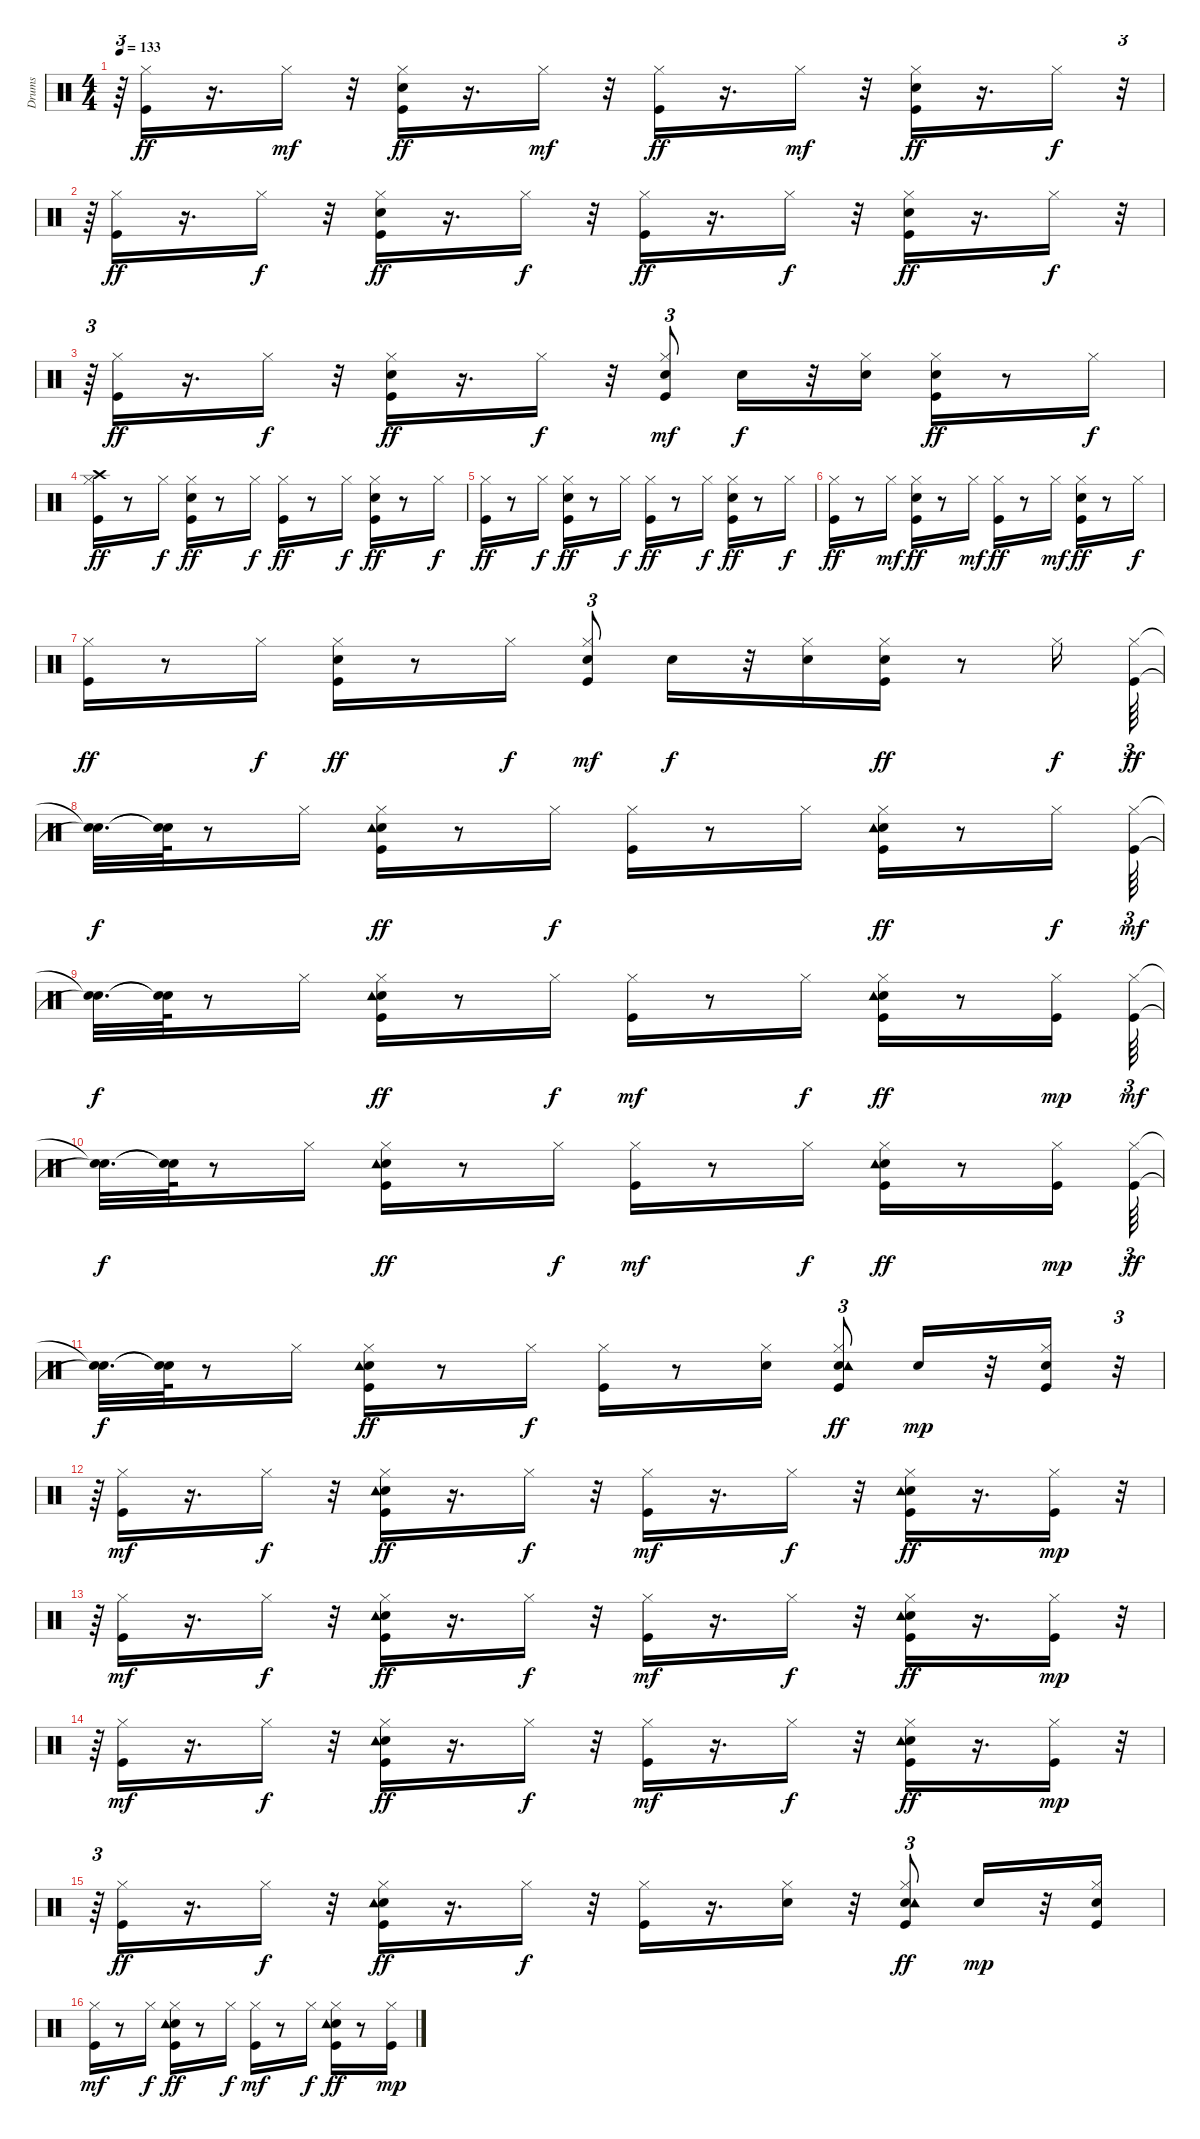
\track ("Drums   " "Drums   ") {instrument percussion}
\staff {score}
\articulation defaults
\ts (4 4)
\tempo 133
\clef neutral
\ks c
r.64{tu (3 2) dy f} ("Kick (hit)" "Hi-Hat (closed)").16{dy ff} r.16{d} "Hi-Hat (closed)".16{dy mf} r.32 ("Kick (hit)" "Snare (hit) 2" "Hi-Hat (closed)").16{dy ff} r.16{d} "Hi-Hat (closed)".16{dy mf} r.32 ("Kick (hit)" "Hi-Hat (closed)").16{dy ff} r.16{d} "Hi-Hat (closed)".16{dy mf} r.32 ("Kick (hit)" "Snare (hit) 2" "Hi-Hat (closed)").16{dy ff} r.16{d} "Hi-Hat (closed)".16{dy f} r.32{tu (3 2)} |
r.64{tu (3 2)} ("Kick (hit)" "Hi-Hat (closed)").16{dy ff} r.16{d} "Hi-Hat (closed)".16{dy f} r.32 ("Kick (hit)" "Snare (hit) 2" "Hi-Hat (closed)").16{dy ff} r.16{d} "Hi-Hat (closed)".16{dy f} r.32 ("Kick (hit)" "Hi-Hat (closed)").16{dy ff} r.16{d} "Hi-Hat (closed)".16{dy f} r.32 ("Kick (hit)" "Snare (hit) 2" "Hi-Hat (closed)").16{dy ff} r.16{d} "Hi-Hat (closed)".16{dy f} r.32{tu (3 2)} |
r.64{tu (3 2)} ("Kick (hit)" "Hi-Hat (closed)").16{dy ff} r.16{d} "Hi-Hat (closed)".16{dy f} r.32 ("Kick (hit)" "Snare (hit) 2" "Hi-Hat (closed)").16{dy ff} r.16{d} "Hi-Hat (closed)".16{dy f} r.32 ("Kick (hit)" "Snare (hit) 2" "Hi-Hat (closed)").8{tu (3 2) dy mf} "Snare (hit) 2".16{dy f} r.32 ("Snare (hit) 2" "Hi-Hat (closed)").16 ("Kick (hit)" "Snare (hit) 2" "Hi-Hat (closed)").16{dy ff} r.8 "Hi-Hat (closed)".16{dy f} |
("Kick (hit)" "Hi-Hat (closed)" "Crash high (hit)").16{dy ff} r.8 "Hi-Hat (closed)".16{dy f} ("Kick (hit)" "Snare (hit) 2" "Hi-Hat (closed)").16{dy ff} r.8 "Hi-Hat (closed)".16{dy f} ("Kick (hit)" "Hi-Hat (closed)").16{dy ff} r.8 "Hi-Hat (closed)".16{dy f} ("Kick (hit)" "Snare (hit) 2" "Hi-Hat (closed)").16{dy ff} r.8 "Hi-Hat (closed)".16{dy f} |
("Kick (hit)" "Hi-Hat (closed)").16{dy ff} r.8 "Hi-Hat (closed)".16{dy f} ("Kick (hit)" "Snare (hit) 2" "Hi-Hat (closed)").16{dy ff} r.8 "Hi-Hat (closed)".16{dy f} ("Kick (hit)" "Hi-Hat (closed)").16{dy ff} r.8 "Hi-Hat (closed)".16{dy f} ("Kick (hit)" "Snare (hit) 2" "Hi-Hat (closed)").16{dy ff} r.8 "Hi-Hat (closed)".16{dy f} |
("Kick (hit)" "Hi-Hat (closed)").16{dy ff} r.8 "Hi-Hat (closed)".16{dy mf} ("Kick (hit)" "Snare (hit) 2" "Hi-Hat (closed)").16{dy ff} r.8 "Hi-Hat (closed)".16{dy mf} ("Kick (hit)" "Hi-Hat (closed)").16{dy ff} r.8 "Hi-Hat (closed)".16{dy mf} ("Kick (hit)" "Snare (hit) 2" "Hi-Hat (closed)").16{dy ff} r.8 "Hi-Hat (closed)".16{dy f} |
("Kick (hit)" "Hi-Hat (closed)").16{dy ff} r.8 "Hi-Hat (closed)".16{dy f} ("Kick (hit)" "Snare (hit) 2" "Hi-Hat (closed)").16{dy ff} r.8 "Hi-Hat (closed)".16{dy f} ("Kick (hit)" "Snare (hit) 2" "Hi-Hat (closed)").8{tu (3 2) dy mf} "Snare (hit) 2".16{dy f} r.32 ("Snare (hit) 2" "Hi-Hat (closed)").16 ("Kick (hit)" "Snare (hit) 2" "Hi-Hat (closed)").16{dy ff} r.8 "Hi-Hat (closed)".16{dy f} ("Kick (hit)" "Hi-Hat (closed)").64{tu (3 2) dy ff} |
("Snare (hit)"{t} "Snare (hit)"{t}).32{d dy f} ("Snare (hit)"{t} "Snare (hit)"{t}).64 r.8 "Hi-Hat (closed)".16 ("Kick (hit)" "Snare (hit) 2" "Hi-Hat (closed)" "Tambourine (hit)").16{dy ff} r.8 "Hi-Hat (closed)".16{dy f} ("Kick (hit)" "Hi-Hat (closed)").16 r.8 "Hi-Hat (closed)".16 ("Kick (hit)" "Snare (hit) 2" "Hi-Hat (closed)" "Tambourine (hit)").16{dy ff} r.8 "Hi-Hat (closed)".16{dy f} ("Kick (hit)" "Hi-Hat (closed)").64{tu (3 2) dy mf} |
("Snare (hit)"{t} "Snare (hit)"{t}).32{d dy f} ("Snare (hit)"{t} "Snare (hit)"{t}).64 r.8 "Hi-Hat (closed)".16 ("Kick (hit)" "Snare (hit) 2" "Hi-Hat (closed)" "Tambourine (hit)").16{dy ff} r.8 "Hi-Hat (closed)".16{dy f} ("Kick (hit)" "Hi-Hat (closed)").16{dy mf} r.8 "Hi-Hat (closed)".16{dy f} ("Kick (hit)" "Snare (hit) 2" "Hi-Hat (closed)" "Tambourine (hit)").16{dy ff} r.8 ("Kick (hit)" "Hi-Hat (closed)").16{dy mp} ("Kick (hit)" "Hi-Hat (closed)").64{tu (3 2) dy mf} |
("Snare (hit)"{t} "Snare (hit)"{t}).32{d dy f} ("Snare (hit)"{t} "Snare (hit)"{t}).64 r.8 "Hi-Hat (closed)".16 ("Kick (hit)" "Snare (hit) 2" "Hi-Hat (closed)" "Tambourine (hit)").16{dy ff} r.8 "Hi-Hat (closed)".16{dy f} ("Kick (hit)" "Hi-Hat (closed)").16{dy mf} r.8 "Hi-Hat (closed)".16{dy f} ("Kick (hit)" "Snare (hit) 2" "Hi-Hat (closed)" "Tambourine (hit)").16{dy ff} r.8 ("Kick (hit)" "Hi-Hat (closed)").16{dy mp} ("Kick (hit)" "Hi-Hat (closed)").64{tu (3 2) dy ff} |
("Snare (hit)"{t} "Snare (hit)"{t}).32{d dy f} ("Snare (hit)"{t} "Snare (hit)"{t}).64 r.8 "Hi-Hat (closed)".16 ("Kick (hit)" "Snare (hit) 2" "Hi-Hat (closed)" "Tambourine (hit)").16{dy ff} r.8 "Hi-Hat (closed)".16{dy f} ("Kick (hit)" "Hi-Hat (closed)").16 r.8 ("Snare (hit) 2" "Hi-Hat (closed)").16 ("Kick (hit)" "Snare (hit) 2" "Hi-Hat (closed)" "Tambourine (hit)").8{tu (3 2) dy ff} "Snare (hit) 2".16{dy mp} r.32 ("Kick (hit)" "Snare (hit) 2" "Hi-Hat (closed)").16 r.32{tu (3 2)} |
r.64{tu (3 2)} ("Kick (hit)" "Hi-Hat (closed)").16{dy mf} r.16{d} "Hi-Hat (closed)".16{dy f} r.32 ("Kick (hit)" "Snare (hit) 2" "Hi-Hat (closed)" "Tambourine (hit)").16{dy ff} r.16{d} "Hi-Hat (closed)".16{dy f} r.32 ("Kick (hit)" "Hi-Hat (closed)").16{dy mf} r.16{d} "Hi-Hat (closed)".16{dy f} r.32 ("Kick (hit)" "Snare (hit) 2" "Hi-Hat (closed)" "Tambourine (hit)").16{dy ff} r.16{d} ("Kick (hit)" "Hi-Hat (closed)").16{dy mp} r.32{tu (3 2)} |
r.64{tu (3 2)} ("Kick (hit)" "Hi-Hat (closed)").16{dy mf} r.16{d} "Hi-Hat (closed)".16{dy f} r.32 ("Kick (hit)" "Snare (hit) 2" "Hi-Hat (closed)" "Tambourine (hit)").16{dy ff} r.16{d} "Hi-Hat (closed)".16{dy f} r.32 ("Kick (hit)" "Hi-Hat (closed)").16{dy mf} r.16{d} "Hi-Hat (closed)".16{dy f} r.32 ("Kick (hit)" "Snare (hit) 2" "Hi-Hat (closed)" "Tambourine (hit)").16{dy ff} r.16{d} ("Kick (hit)" "Hi-Hat (closed)").16{dy mp} r.32{tu (3 2)} |
r.64{tu (3 2)} ("Kick (hit)" "Hi-Hat (closed)").16{dy mf} r.16{d} "Hi-Hat (closed)".16{dy f} r.32 ("Kick (hit)" "Snare (hit) 2" "Hi-Hat (closed)" "Tambourine (hit)").16{dy ff} r.16{d} "Hi-Hat (closed)".16{dy f} r.32 ("Kick (hit)" "Hi-Hat (closed)").16{dy mf} r.16{d} "Hi-Hat (closed)".16{dy f} r.32 ("Kick (hit)" "Snare (hit) 2" "Hi-Hat (closed)" "Tambourine (hit)").16{dy ff} r.16{d} ("Kick (hit)" "Hi-Hat (closed)").16{dy mp} r.32{tu (3 2)} |
r.64{tu (3 2)} ("Kick (hit)" "Hi-Hat (closed)").16{dy ff} r.16{d} "Hi-Hat (closed)".16{dy f} r.32 ("Kick (hit)" "Snare (hit) 2" "Hi-Hat (closed)" "Tambourine (hit)").16{dy ff} r.16{d} "Hi-Hat (closed)".16{dy f} r.32 ("Kick (hit)" "Hi-Hat (closed)").16 r.16{d} ("Snare (hit) 2" "Hi-Hat (closed)").16 r.32 ("Kick (hit)" "Snare (hit) 2" "Hi-Hat (closed)" "Tambourine (hit)").8{tu (3 2) dy ff} "Snare (hit) 2".16{dy mp} r.32 ("Kick (hit)" "Snare (hit) 2" "Hi-Hat (closed)").16 |
("Kick (hit)" "Hi-Hat (closed)").16{dy mf} r.8 "Hi-Hat (closed)".16{dy f} ("Kick (hit)" "Snare (hit) 2" "Hi-Hat (closed)" "Tambourine (hit)").16{dy ff} r.8 "Hi-Hat (closed)".16{dy f} ("Kick (hit)" "Hi-Hat (closed)").16{dy mf} r.8 "Hi-Hat (closed)".16{dy f} ("Kick (hit)" "Snare (hit) 2" "Hi-Hat (closed)" "Tambourine (hit)").16{dy ff} r.8 ("Kick (hit)" "Hi-Hat (closed)").16{dy mp}
